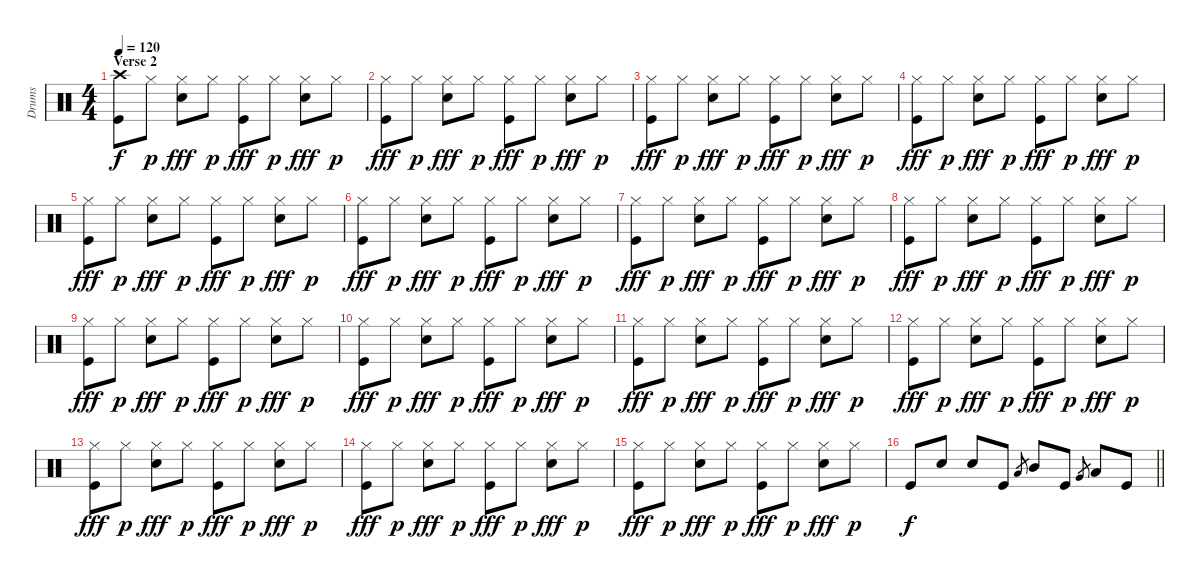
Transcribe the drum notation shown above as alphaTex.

\track ("Drums" "Drums") {instrument percussion}
\staff {score}
\articulation defaults
\ts (4 4)
\section ("" "Verse 2")
\tempo 120
\clef neutral
\ks c
("Crash high (hit)" "Kick (hit)").8{dy f} "Hi-Hat (closed)".8{dy p} ("Hi-Hat (closed)" "Electric Snare (hit)").8{dy fff} "Hi-Hat (closed)".8{dy p} ("Hi-Hat (closed)" "Kick (hit)").8{dy fff} "Hi-Hat (closed)".8{dy p} ("Hi-Hat (closed)" "Electric Snare (hit)").8{dy fff} "Hi-Hat (closed)".8{dy p} |
("Hi-Hat (closed)" "Kick (hit)").8{dy fff} "Hi-Hat (closed)".8{dy p} ("Hi-Hat (closed)" "Electric Snare (hit)").8{dy fff} "Hi-Hat (closed)".8{dy p} ("Hi-Hat (closed)" "Kick (hit)").8{dy fff} "Hi-Hat (closed)".8{dy p} ("Hi-Hat (closed)" "Electric Snare (hit)").8{dy fff} "Hi-Hat (closed)".8{dy p} |
("Hi-Hat (closed)" "Kick (hit)").8{dy fff} "Hi-Hat (closed)".8{dy p} ("Hi-Hat (closed)" "Electric Snare (hit)").8{dy fff} "Hi-Hat (closed)".8{dy p} ("Hi-Hat (closed)" "Kick (hit)").8{dy fff} "Hi-Hat (closed)".8{dy p} ("Hi-Hat (closed)" "Electric Snare (hit)").8{dy fff} "Hi-Hat (closed)".8{dy p} |
("Hi-Hat (closed)" "Kick (hit)").8{dy fff} "Hi-Hat (closed)".8{dy p} ("Hi-Hat (closed)" "Electric Snare (hit)").8{dy fff} "Hi-Hat (closed)".8{dy p} ("Hi-Hat (closed)" "Kick (hit)").8{dy fff} "Hi-Hat (closed)".8{dy p} ("Hi-Hat (closed)" "Electric Snare (hit)").8{dy fff} "Hi-Hat (closed)".8{dy p} |
("Hi-Hat (closed)" "Kick (hit)").8{dy fff} "Hi-Hat (closed)".8{dy p} ("Hi-Hat (closed)" "Electric Snare (hit)").8{dy fff} "Hi-Hat (closed)".8{dy p} ("Hi-Hat (closed)" "Kick (hit)").8{dy fff} "Hi-Hat (closed)".8{dy p} ("Hi-Hat (closed)" "Electric Snare (hit)").8{dy fff} "Hi-Hat (closed)".8{dy p} |
("Hi-Hat (closed)" "Kick (hit)").8{dy fff} "Hi-Hat (closed)".8{dy p} ("Hi-Hat (closed)" "Electric Snare (hit)").8{dy fff} "Hi-Hat (closed)".8{dy p} ("Hi-Hat (closed)" "Kick (hit)").8{dy fff} "Hi-Hat (closed)".8{dy p} ("Hi-Hat (closed)" "Electric Snare (hit)").8{dy fff} "Hi-Hat (closed)".8{dy p} |
("Hi-Hat (closed)" "Kick (hit)").8{dy fff} "Hi-Hat (closed)".8{dy p} ("Hi-Hat (closed)" "Electric Snare (hit)").8{dy fff} "Hi-Hat (closed)".8{dy p} ("Hi-Hat (closed)" "Kick (hit)").8{dy fff} "Hi-Hat (closed)".8{dy p} ("Hi-Hat (closed)" "Electric Snare (hit)").8{dy fff} "Hi-Hat (closed)".8{dy p} |
("Hi-Hat (closed)" "Kick (hit)").8{dy fff} "Hi-Hat (closed)".8{dy p} ("Hi-Hat (closed)" "Electric Snare (hit)").8{dy fff} "Hi-Hat (closed)".8{dy p} ("Hi-Hat (closed)" "Kick (hit)").8{dy fff} "Hi-Hat (closed)".8{dy p} ("Hi-Hat (closed)" "Electric Snare (hit)").8{dy fff} "Hi-Hat (closed)".8{dy p} |
("Hi-Hat (closed)" "Kick (hit)").8{dy fff} "Hi-Hat (closed)".8{dy p} ("Hi-Hat (closed)" "Electric Snare (hit)").8{dy fff} "Hi-Hat (closed)".8{dy p} ("Hi-Hat (closed)" "Kick (hit)").8{dy fff} "Hi-Hat (closed)".8{dy p} ("Hi-Hat (closed)" "Electric Snare (hit)").8{dy fff} "Hi-Hat (closed)".8{dy p} |
("Hi-Hat (closed)" "Kick (hit)").8{dy fff} "Hi-Hat (closed)".8{dy p} ("Hi-Hat (closed)" "Electric Snare (hit)").8{dy fff} "Hi-Hat (closed)".8{dy p} ("Hi-Hat (closed)" "Kick (hit)").8{dy fff} "Hi-Hat (closed)".8{dy p} ("Hi-Hat (closed)" "Electric Snare (hit)").8{dy fff} "Hi-Hat (closed)".8{dy p} |
("Hi-Hat (closed)" "Kick (hit)").8{dy fff} "Hi-Hat (closed)".8{dy p} ("Hi-Hat (closed)" "Electric Snare (hit)").8{dy fff} "Hi-Hat (closed)".8{dy p} ("Hi-Hat (closed)" "Kick (hit)").8{dy fff} "Hi-Hat (closed)".8{dy p} ("Hi-Hat (closed)" "Electric Snare (hit)").8{dy fff} "Hi-Hat (closed)".8{dy p} |
("Hi-Hat (closed)" "Kick (hit)").8{dy fff} "Hi-Hat (closed)".8{dy p} ("Hi-Hat (closed)" "Electric Snare (hit)").8{dy fff} "Hi-Hat (closed)".8{dy p} ("Hi-Hat (closed)" "Kick (hit)").8{dy fff} "Hi-Hat (closed)".8{dy p} ("Hi-Hat (closed)" "Electric Snare (hit)").8{dy fff} "Hi-Hat (closed)".8{dy p} |
("Hi-Hat (closed)" "Kick (hit)").8{dy fff} "Hi-Hat (closed)".8{dy p} ("Hi-Hat (closed)" "Electric Snare (hit)").8{dy fff} "Hi-Hat (closed)".8{dy p} ("Hi-Hat (closed)" "Kick (hit)").8{dy fff} "Hi-Hat (closed)".8{dy p} ("Hi-Hat (closed)" "Electric Snare (hit)").8{dy fff} "Hi-Hat (closed)".8{dy p} |
("Hi-Hat (closed)" "Kick (hit)").8{dy fff} "Hi-Hat (closed)".8{dy p} ("Hi-Hat (closed)" "Electric Snare (hit)").8{dy fff} "Hi-Hat (closed)".8{dy p} ("Hi-Hat (closed)" "Kick (hit)").8{dy fff} "Hi-Hat (closed)".8{dy p} ("Hi-Hat (closed)" "Electric Snare (hit)").8{dy fff} "Hi-Hat (closed)".8{dy p} |
("Hi-Hat (closed)" "Kick (hit)").8{dy fff} "Hi-Hat (closed)".8{dy p} ("Hi-Hat (closed)" "Electric Snare (hit)").8{dy fff} "Hi-Hat (closed)".8{dy p} ("Hi-Hat (closed)" "Kick (hit)").8{dy fff} "Hi-Hat (closed)".8{dy p} ("Hi-Hat (closed)" "Electric Snare (hit)").8{dy fff} "Hi-Hat (closed)".8{dy p} |
\barLineRight lightlight "Kick (hit)".8{dy f} "Electric Snare (hit)".8 "Electric Snare (hit)".8 "Kick (hit)".8 "Low Tom (hit)".8{gr} "Mid Tom (hit)".8 "Kick (hit)".8 "Very Low Tom (hit)".8{gr} "Low Tom (hit)".8 "Kick (hit)".8
